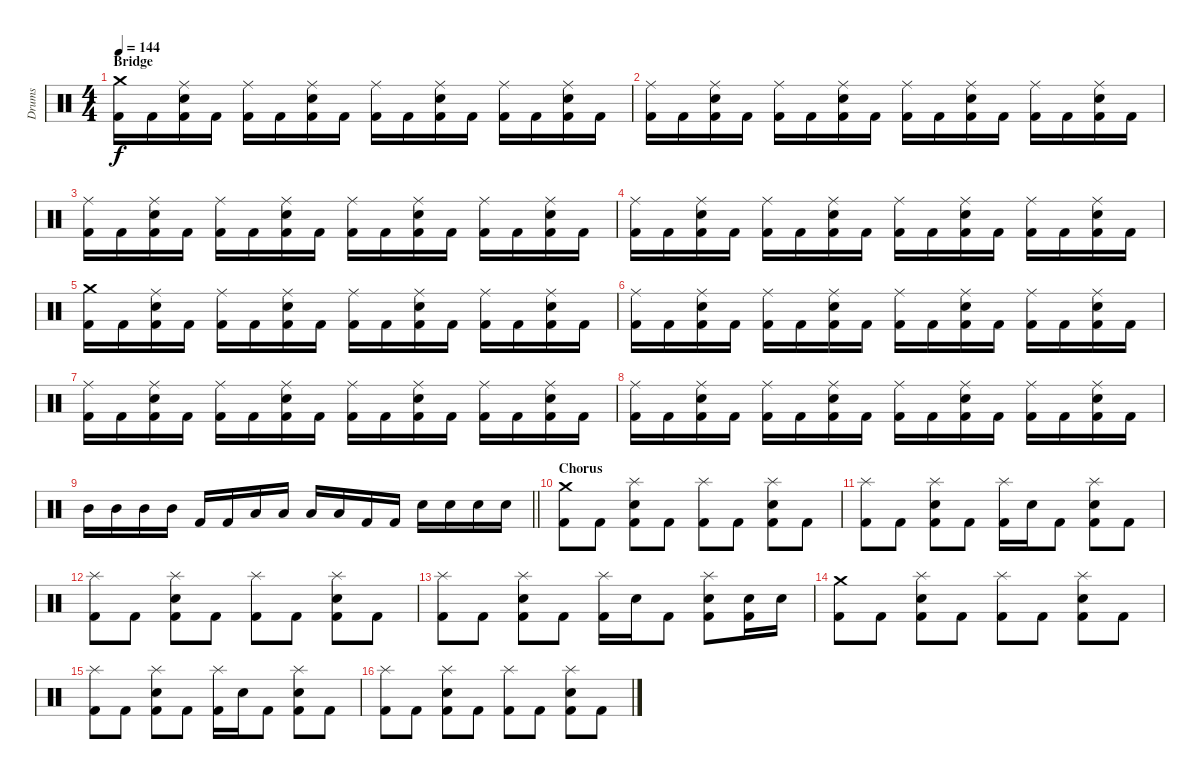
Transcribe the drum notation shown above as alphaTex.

\track ("Drums" "Drums") {instrument percussion}
\staff {score}
\articulation defaults
\ts (4 4)
\section ("" "Bridge")
\tempo 144
\clef neutral
\ks c
("Kick (hit) 2" "Crash medium (hit)").16{dy f} "Kick (hit) 2".16 ("Kick (hit) 2" "Snare (hit) 2" "Ride (middle)").16 "Kick (hit) 2".16 ("Kick (hit) 2" "Ride (middle)").16 "Kick (hit) 2".16 ("Kick (hit) 2" "Snare (hit) 2" "Ride (middle)").16 "Kick (hit) 2".16 ("Kick (hit) 2" "Ride (middle)").16 "Kick (hit) 2".16 ("Kick (hit) 2" "Snare (hit) 2" "Ride (middle)").16 "Kick (hit) 2".16 ("Kick (hit) 2" "Ride (middle)").16 "Kick (hit) 2".16 ("Kick (hit) 2" "Snare (hit) 2" "Ride (middle)").16 "Kick (hit) 2".16 |
("Kick (hit) 2" "Ride (middle)").16 "Kick (hit) 2".16 ("Kick (hit) 2" "Snare (hit) 2" "Ride (middle)").16 "Kick (hit) 2".16 ("Kick (hit) 2" "Ride (middle)").16 "Kick (hit) 2".16 ("Kick (hit) 2" "Snare (hit) 2" "Ride (middle)").16 "Kick (hit) 2".16 ("Kick (hit) 2" "Ride (middle)").16 "Kick (hit) 2".16 ("Kick (hit) 2" "Snare (hit) 2" "Ride (middle)").16 "Kick (hit) 2".16 ("Kick (hit) 2" "Ride (middle)").16 "Kick (hit) 2".16 ("Kick (hit) 2" "Snare (hit) 2" "Ride (middle)").16 "Kick (hit) 2".16 |
("Kick (hit) 2" "Ride (middle)").16 "Kick (hit) 2".16 ("Kick (hit) 2" "Snare (hit) 2" "Ride (middle)").16 "Kick (hit) 2".16 ("Kick (hit) 2" "Ride (middle)").16 "Kick (hit) 2".16 ("Kick (hit) 2" "Snare (hit) 2" "Ride (middle)").16 "Kick (hit) 2".16 ("Kick (hit) 2" "Ride (middle)").16 "Kick (hit) 2".16 ("Kick (hit) 2" "Snare (hit) 2" "Ride (middle)").16 "Kick (hit) 2".16 ("Kick (hit) 2" "Ride (middle)").16 "Kick (hit) 2".16 ("Kick (hit) 2" "Snare (hit) 2" "Ride (middle)").16 "Kick (hit) 2".16 |
("Kick (hit) 2" "Ride (middle)").16 "Kick (hit) 2".16 ("Kick (hit) 2" "Snare (hit) 2" "Ride (middle)").16 "Kick (hit) 2".16 ("Kick (hit) 2" "Ride (middle)").16 "Kick (hit) 2".16 ("Kick (hit) 2" "Snare (hit) 2" "Ride (middle)").16 "Kick (hit) 2".16 ("Kick (hit) 2" "Ride (middle)").16 "Kick (hit) 2".16 ("Kick (hit) 2" "Snare (hit) 2" "Ride (middle)").16 "Kick (hit) 2".16 ("Kick (hit) 2" "Ride (middle)").16 "Kick (hit) 2".16 ("Kick (hit) 2" "Snare (hit) 2" "Ride (middle)").16 "Kick (hit) 2".16 |
("Kick (hit) 2" "Crash medium (hit)").16 "Kick (hit) 2".16 ("Kick (hit) 2" "Snare (hit) 2" "Ride (middle)").16 "Kick (hit) 2".16 ("Kick (hit) 2" "Ride (middle)").16 "Kick (hit) 2".16 ("Kick (hit) 2" "Snare (hit) 2" "Ride (middle)").16 "Kick (hit) 2".16 ("Kick (hit) 2" "Ride (middle)").16 "Kick (hit) 2".16 ("Kick (hit) 2" "Snare (hit) 2" "Ride (middle)").16 "Kick (hit) 2".16 ("Kick (hit) 2" "Ride (middle)").16 "Kick (hit) 2".16 ("Kick (hit) 2" "Snare (hit) 2" "Ride (middle)").16 "Kick (hit) 2".16 |
("Kick (hit) 2" "Ride (middle)").16 "Kick (hit) 2".16 ("Kick (hit) 2" "Snare (hit) 2" "Ride (middle)").16 "Kick (hit) 2".16 ("Kick (hit) 2" "Ride (middle)").16 "Kick (hit) 2".16 ("Kick (hit) 2" "Snare (hit) 2" "Ride (middle)").16 "Kick (hit) 2".16 ("Kick (hit) 2" "Ride (middle)").16 "Kick (hit) 2".16 ("Kick (hit) 2" "Snare (hit) 2" "Ride (middle)").16 "Kick (hit) 2".16 ("Kick (hit) 2" "Ride (middle)").16 "Kick (hit) 2".16 ("Kick (hit) 2" "Snare (hit) 2" "Ride (middle)").16 "Kick (hit) 2".16 |
("Kick (hit) 2" "Ride (middle)").16 "Kick (hit) 2".16 ("Kick (hit) 2" "Snare (hit) 2" "Ride (middle)").16 "Kick (hit) 2".16 ("Kick (hit) 2" "Ride (middle)").16 "Kick (hit) 2".16 ("Kick (hit) 2" "Snare (hit) 2" "Ride (middle)").16 "Kick (hit) 2".16 ("Kick (hit) 2" "Ride (middle)").16 "Kick (hit) 2".16 ("Kick (hit) 2" "Snare (hit) 2" "Ride (middle)").16 "Kick (hit) 2".16 ("Kick (hit) 2" "Ride (middle)").16 "Kick (hit) 2".16 ("Kick (hit) 2" "Snare (hit) 2" "Ride (middle)").16 "Kick (hit) 2".16 |
("Kick (hit) 2" "Ride (middle)").16 "Kick (hit) 2".16 ("Kick (hit) 2" "Snare (hit) 2" "Ride (middle)").16 "Kick (hit) 2".16 ("Kick (hit) 2" "Ride (middle)").16 "Kick (hit) 2".16 ("Kick (hit) 2" "Snare (hit) 2" "Ride (middle)").16 "Kick (hit) 2".16 ("Kick (hit) 2" "Ride (middle)").16 "Kick (hit) 2".16 ("Kick (hit) 2" "Snare (hit) 2" "Ride (middle)").16 "Kick (hit) 2".16 ("Kick (hit) 2" "Ride (middle)").16 "Kick (hit) 2".16 ("Kick (hit) 2" "Snare (hit) 2" "Ride (middle)").16 "Kick (hit) 2".16 |
\barLineRight lightlight "Mid Tom (hit)".16 "Mid Tom (hit)".16 "Mid Tom (hit)".16 "Mid Tom (hit)".16 "Kick (hit) 2".16 "Kick (hit) 2".16 "Low Tom (hit)".16 "Low Tom (hit)".16 "Low Tom (hit)".16 "Low Tom (hit)".16 "Kick (hit) 2".16 "Kick (hit) 2".16 "Snare (hit) 2".16 "Snare (hit) 2".16 "Snare (hit) 2".16 "Snare (hit) 2".16
|
\section ("" "Chorus")
("Kick (hit) 2" "Crash medium (hit)").8 "Kick (hit) 2".8 ("Kick (hit) 2" "Snare (hit) 2" "Splash (hit)").8 "Kick (hit) 2".8 ("Kick (hit) 2" "Splash (hit)").8 "Kick (hit) 2".8 ("Kick (hit) 2" "Snare (hit) 2" "Splash (hit)").8 "Kick (hit) 2".8 |
("Kick (hit) 2" "Splash (hit)").8 "Kick (hit) 2".8 ("Kick (hit) 2" "Snare (hit) 2" "Splash (hit)").8 "Kick (hit) 2".8 ("Kick (hit) 2" "Splash (hit)").16 "Snare (hit) 2".16 "Kick (hit) 2".8 ("Kick (hit) 2" "Snare (hit) 2" "Splash (hit)").8 "Kick (hit) 2".8 |
("Kick (hit) 2" "Splash (hit)").8 "Kick (hit) 2".8 ("Kick (hit) 2" "Snare (hit) 2" "Splash (hit)").8 "Kick (hit) 2".8 ("Kick (hit) 2" "Splash (hit)").8 "Kick (hit) 2".8 ("Kick (hit) 2" "Snare (hit) 2" "Splash (hit)").8 "Kick (hit) 2".8 |
("Kick (hit) 2" "Splash (hit)").8 "Kick (hit) 2".8 ("Kick (hit) 2" "Snare (hit) 2" "Splash (hit)").8 "Kick (hit) 2".8 ("Kick (hit) 2" "Splash (hit)").16 "Snare (hit) 2".16 "Kick (hit) 2".8 ("Kick (hit) 2" "Snare (hit) 2" "Splash (hit)").8 ("Kick (hit) 2" "Snare (hit) 2").16 "Snare (hit) 2".16 |
("Kick (hit) 2" "Crash medium (hit)").8 "Kick (hit) 2".8 ("Kick (hit) 2" "Snare (hit) 2" "Splash (hit)").8 "Kick (hit) 2".8 ("Kick (hit) 2" "Splash (hit)").8 "Kick (hit) 2".8 ("Kick (hit) 2" "Snare (hit) 2" "Splash (hit)").8 "Kick (hit) 2".8 |
("Kick (hit) 2" "Splash (hit)").8 "Kick (hit) 2".8 ("Kick (hit) 2" "Snare (hit) 2" "Splash (hit)").8 "Kick (hit) 2".8 ("Kick (hit) 2" "Splash (hit)").16 "Snare (hit) 2".16 "Kick (hit) 2".8 ("Kick (hit) 2" "Snare (hit) 2" "Splash (hit)").8 "Kick (hit) 2".8 |
("Kick (hit) 2" "Splash (hit)").8 "Kick (hit) 2".8 ("Kick (hit) 2" "Snare (hit) 2" "Splash (hit)").8 "Kick (hit) 2".8 ("Kick (hit) 2" "Splash (hit)").8 "Kick (hit) 2".8 ("Kick (hit) 2" "Snare (hit) 2" "Splash (hit)").8 "Kick (hit) 2".8
